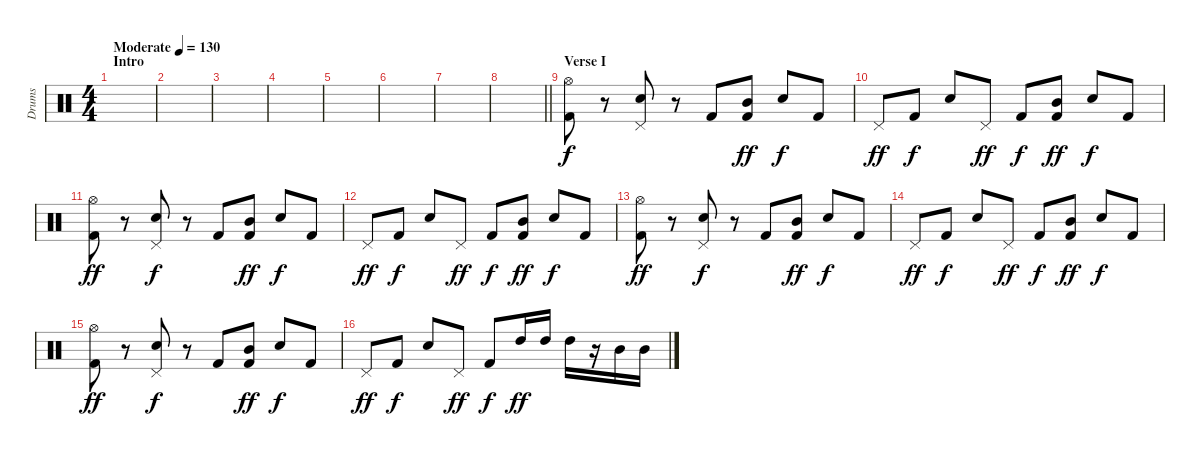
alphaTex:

\track ("Drums" "Drums") {instrument percussion}
\staff {score}
\articulation defaults
\ts (4 4)
\section ("" "Intro")
\tempo (130 "Moderate")
\clef neutral
\ks c
|
|
|
|
|
|
|
\barLineRight lightlight
|
\section ("" "Verse I")
("Hi-Hat (open)" "Kick (hit) 2").8 r.8 ("Pedal Hi-Hat (hit)" "Snare (hit) 2").8{dy f} r.8 "Kick (hit) 2".8 ("Mid Tom (hit)" "Kick (hit) 2").8{dy ff} "Snare (hit) 2".8{dy f} "Kick (hit) 2".8 |
"Pedal Hi-Hat (hit)".8{dy ff} "Kick (hit) 2".8{dy f} "Snare (hit) 2".8 "Pedal Hi-Hat (hit)".8{dy ff} "Kick (hit) 2".8{dy f} ("Mid Tom (hit)" "Kick (hit) 2").8{dy ff} "Snare (hit) 2".8{dy f} "Kick (hit) 2".8 |
("Hi-Hat (open)" "Kick (hit) 2").8{dy ff} r.8 ("Pedal Hi-Hat (hit)" "Snare (hit) 2").8{dy f} r.8 "Kick (hit) 2".8 ("Mid Tom (hit)" "Kick (hit) 2").8{dy ff} "Snare (hit) 2".8{dy f} "Kick (hit) 2".8 |
"Pedal Hi-Hat (hit)".8{dy ff} "Kick (hit) 2".8{dy f} "Snare (hit) 2".8 "Pedal Hi-Hat (hit)".8{dy ff} "Kick (hit) 2".8{dy f} ("Mid Tom (hit)" "Kick (hit) 2").8{dy ff} "Snare (hit) 2".8{dy f} "Kick (hit) 2".8 |
("Hi-Hat (open)" "Kick (hit) 2").8{dy ff} r.8 ("Pedal Hi-Hat (hit)" "Snare (hit) 2").8{dy f} r.8 "Kick (hit) 2".8 ("Mid Tom (hit)" "Kick (hit) 2").8{dy ff} "Snare (hit) 2".8{dy f} "Kick (hit) 2".8 |
"Pedal Hi-Hat (hit)".8{dy ff} "Kick (hit) 2".8{dy f} "Snare (hit) 2".8 "Pedal Hi-Hat (hit)".8{dy ff} "Kick (hit) 2".8{dy f} ("Mid Tom (hit)" "Kick (hit) 2").8{dy ff} "Snare (hit) 2".8{dy f} "Kick (hit) 2".8 |
("Hi-Hat (open)" "Kick (hit) 2").8{dy ff} r.8 ("Pedal Hi-Hat (hit)" "Snare (hit) 2").8{dy f} r.8 "Kick (hit) 2".8 ("Mid Tom (hit)" "Kick (hit) 2").8{dy ff} "Snare (hit) 2".8{dy f} "Kick (hit) 2".8 |
"Pedal Hi-Hat (hit)".8{dy ff} "Kick (hit) 2".8{dy f} "Snare (hit) 2".8 "Pedal Hi-Hat (hit)".8{dy ff} "Kick (hit) 2".8{dy f} "High Tom (hit)".16{dy ff} "High Tom (hit)".16 "High Tom (hit)".16 r.16 "Mid Tom (hit)".16 "Mid Tom (hit)".16
